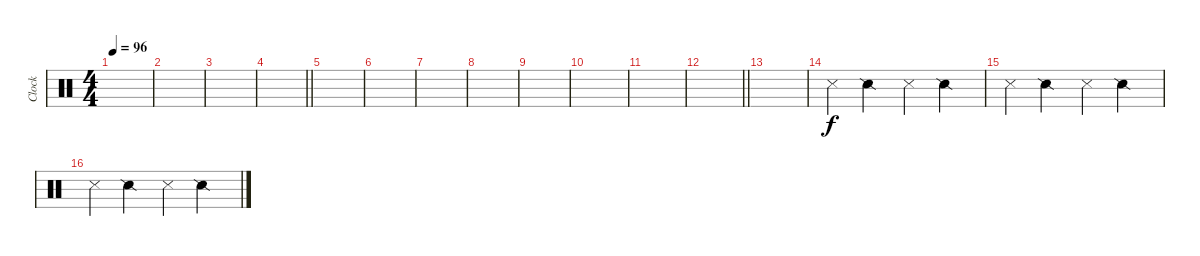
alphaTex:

\track ("Clock" "Clock") {instrument percussion}
\staff {score}
\articulation defaults
\ts (4 4)
\tempo 96
\clef neutral
\ks c
|
|
|
\barLineRight lightlight
|
|
|
|
|
|
|
|
\barLineRight lightlight
|
|
"Snare (side stick) 3".4 "Snare (side stick) 2".4 "Snare (side stick) 3".4 "Snare (side stick) 2".4 |
"Snare (side stick) 3".4 "Snare (side stick) 2".4 "Snare (side stick) 3".4 "Snare (side stick) 2".4 |
"Snare (side stick) 3".4 "Snare (side stick) 2".4 "Snare (side stick) 3".4 "Snare (side stick) 2".4
